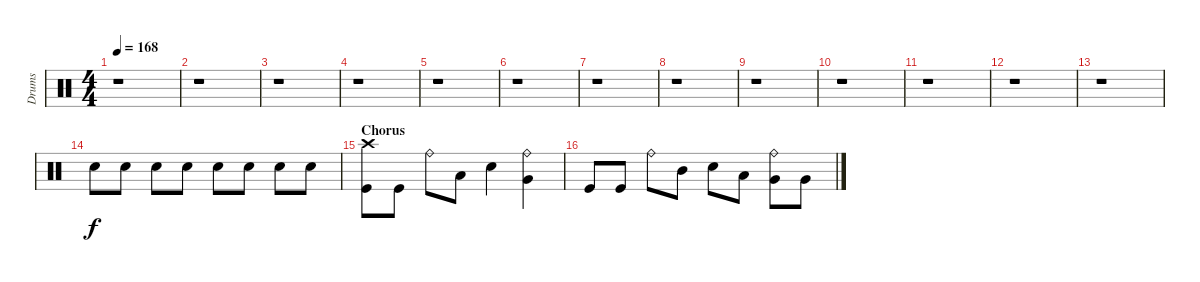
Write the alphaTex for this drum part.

\track ("Drums" "Drums") {instrument percussion}
\staff {score}
\articulation defaults
\ts (4 4)
\tempo 168
\clef neutral
\ks c
r.1{dy f} |
r.1 |
r.1 |
r.1 |
r.1 |
r.1 |
r.1 |
r.1 |
r.1 |
r.1 |
r.1 |
r.1 |
r.1 |
"Electric Snare (hit)".8 "Electric Snare (hit)".8 "Electric Snare (hit)".8 "Electric Snare (hit)".8 "Electric Snare (hit)".8 "Electric Snare (hit)".8 "Electric Snare (hit)".8 "Electric Snare (hit)".8 |
\section ("" "Chorus")
("Crash high (hit)" "Kick (hit)").8 "Kick (hit)".8 "Ride (bell)".8 "Low Tom (hit)".8 "Electric Snare (hit)".4 ("Ride (bell)" "Very Low Tom (hit)").4 |
"Kick (hit)".8 "Kick (hit)".8 "Ride (bell)".8 "Mid Tom (hit)".8 "Electric Snare (hit)".8 "Low Tom (hit)".8 ("Ride (bell)" "Very Low Tom (hit)").8 "Very Low Tom (hit)".8
